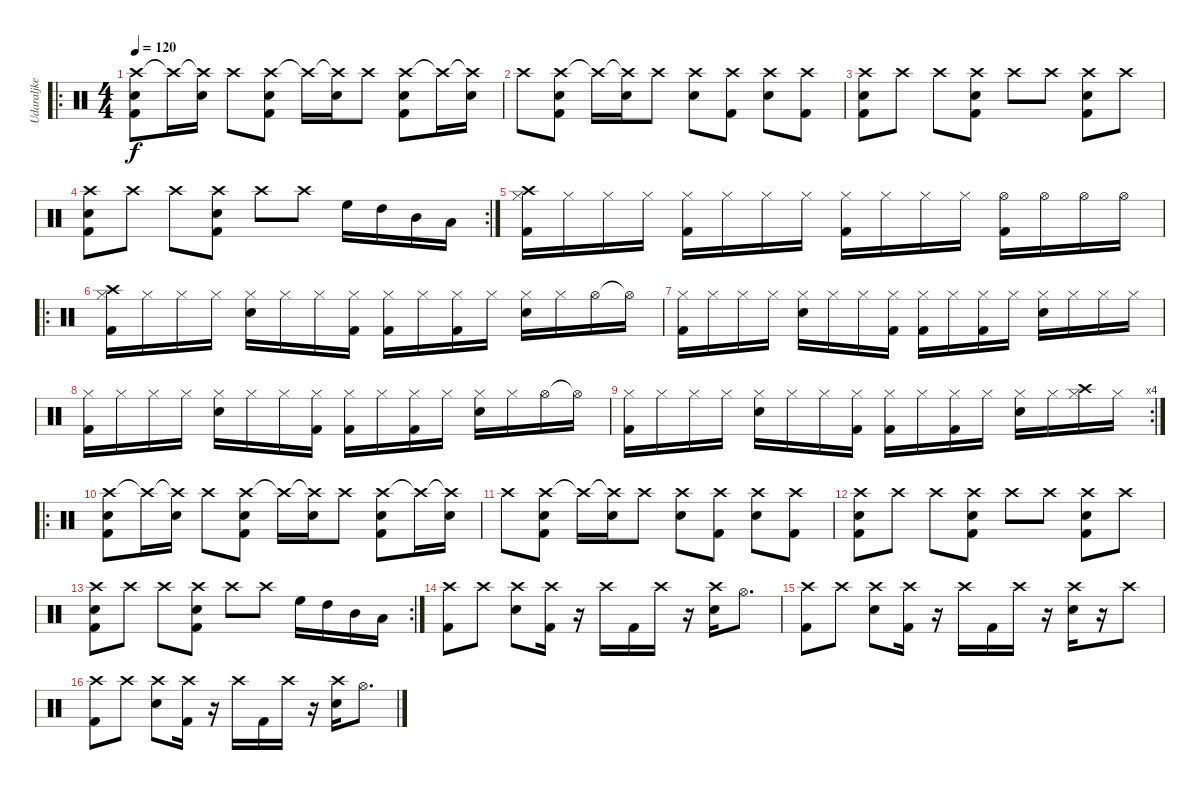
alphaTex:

\track ("Udaraljke" "Udaraljke") {instrument percussion}
\staff {score}
\articulation defaults
\ro
\ts (4 4)
\tempo 120
\clef neutral
\ks c
("Crash high (hit)" "Snare (hit) 2" "Kick (hit) 2").8{dy f} "Crash high (hit)"{t}.16 ("Crash high (hit)"{t} "Snare (hit) 2").16 "Crash high (hit)".8 ("Crash high (hit)" "Snare (hit) 2" "Kick (hit) 2").8 "Crash high (hit)"{t}.16 ("Crash high (hit)"{t} "Snare (hit) 2").16 "Crash high (hit)".8 ("Crash high (hit)" "Snare (hit) 2" "Kick (hit) 2").8 "Crash high (hit)"{t}.16 ("Crash high (hit)"{t} "Snare (hit) 2").16 |
"Crash high (hit)".8 ("Crash high (hit)" "Snare (hit) 2" "Kick (hit) 2").8 "Crash high (hit)"{t}.16 ("Crash high (hit)"{t} "Snare (hit) 2").16 "Crash high (hit)".8 ("Crash high (hit)" "Snare (hit) 2").8 ("Crash high (hit)" "Kick (hit) 2").8 ("Crash high (hit)" "Snare (hit) 2").8 ("Crash high (hit)" "Kick (hit) 2").8 |
("Crash high (hit)" "Snare (hit) 2" "Kick (hit) 2").8 "Crash high (hit)".8 "Crash high (hit)".8 ("Crash high (hit)" "Snare (hit) 2" "Kick (hit) 2").8 "Crash high (hit)".8 "Crash high (hit)".8 ("Crash high (hit)" "Snare (hit) 2" "Kick (hit) 2").8 "Crash high (hit)".8 |
\rc 2
("Crash high (hit)" "Snare (hit) 2" "Kick (hit) 2").8 "Crash high (hit)".8 "Crash high (hit)".8 ("Crash high (hit)" "Snare (hit) 2" "Kick (hit) 2").8 "Crash high (hit)".8 "Crash high (hit)".8 "High Floor Tom (hit)".16 "High Tom (hit)".16 "Mid Tom (hit)".16 "Low Tom (hit)".16 |
("Crash high (hit)" "Hi-Hat (closed)" "Kick (hit) 2").16 "Hi-Hat (closed)".16 "Hi-Hat (closed)".16 "Hi-Hat (closed)".16 ("Hi-Hat (closed)" "Kick (hit) 2").16 "Hi-Hat (closed)".16 "Hi-Hat (closed)".16 "Hi-Hat (closed)".16 ("Hi-Hat (closed)" "Kick (hit) 2").16 "Hi-Hat (closed)".16 "Hi-Hat (closed)".16 "Hi-Hat (closed)".16 ("Hi-Hat (open)" "Kick (hit) 2").16 "Hi-Hat (open)".16 "Hi-Hat (open)".16 "Hi-Hat (open)".16 |
\ro
("Crash high (hit)" "Hi-Hat (closed)" "Kick (hit) 2").16 "Hi-Hat (closed)".16 "Hi-Hat (closed)".16 "Hi-Hat (closed)".16 ("Hi-Hat (closed)" "Snare (hit) 2").16 "Hi-Hat (closed)".16 "Hi-Hat (closed)".16 ("Hi-Hat (closed)" "Kick (hit) 2").16 ("Hi-Hat (closed)" "Kick (hit) 2").16 "Hi-Hat (closed)".16 ("Hi-Hat (closed)" "Kick (hit) 2").16 "Hi-Hat (closed)".16 ("Hi-Hat (closed)" "Snare (hit) 2").16 "Hi-Hat (closed)".16 "Hi-Hat (open)".16 "Hi-Hat (open)"{t}.16 |
("Hi-Hat (closed)" "Kick (hit) 2").16 "Hi-Hat (closed)".16 "Hi-Hat (closed)".16 "Hi-Hat (closed)".16 ("Hi-Hat (closed)" "Snare (hit) 2").16 "Hi-Hat (closed)".16 "Hi-Hat (closed)".16 ("Hi-Hat (closed)" "Kick (hit) 2").16 ("Hi-Hat (closed)" "Kick (hit) 2").16 "Hi-Hat (closed)".16 ("Hi-Hat (closed)" "Kick (hit) 2").16 "Hi-Hat (closed)".16 ("Hi-Hat (closed)" "Snare (hit) 2").16 "Hi-Hat (closed)".16 "Hi-Hat (closed)".16 "Hi-Hat (closed)".16 |
("Hi-Hat (closed)" "Kick (hit) 2").16 "Hi-Hat (closed)".16 "Hi-Hat (closed)".16 "Hi-Hat (closed)".16 ("Hi-Hat (closed)" "Snare (hit) 2").16 "Hi-Hat (closed)".16 "Hi-Hat (closed)".16 ("Hi-Hat (closed)" "Kick (hit) 2").16 ("Hi-Hat (closed)" "Kick (hit) 2").16 "Hi-Hat (closed)".16 ("Hi-Hat (closed)" "Kick (hit) 2").16 "Hi-Hat (closed)".16 ("Hi-Hat (closed)" "Snare (hit) 2").16 "Hi-Hat (closed)".16 "Hi-Hat (open)".16 "Hi-Hat (open)"{t}.16 |
\rc 4
("Hi-Hat (closed)" "Kick (hit) 2").16 "Hi-Hat (closed)".16 "Hi-Hat (closed)".16 "Hi-Hat (closed)".16 ("Hi-Hat (closed)" "Snare (hit) 2").16 "Hi-Hat (closed)".16 "Hi-Hat (closed)".16 ("Hi-Hat (closed)" "Kick (hit) 2").16 ("Hi-Hat (closed)" "Kick (hit) 2").16 "Hi-Hat (closed)".16 ("Hi-Hat (closed)" "Kick (hit) 2").16 "Hi-Hat (closed)".16 ("Hi-Hat (closed)" "Snare (hit) 2").16 "Hi-Hat (closed)".16 ("Crash high (hit)" "Hi-Hat (closed)").16 "Hi-Hat (closed)".16 |
\ro
("Crash high (hit)" "Snare (hit) 2" "Kick (hit) 2").8 "Crash high (hit)"{t}.16 ("Crash high (hit)"{t} "Snare (hit) 2").16 "Crash high (hit)".8 ("Crash high (hit)" "Snare (hit) 2" "Kick (hit) 2").8 "Crash high (hit)"{t}.16 ("Crash high (hit)"{t} "Snare (hit) 2").16 "Crash high (hit)".8 ("Crash high (hit)" "Snare (hit) 2" "Kick (hit) 2").8 "Crash high (hit)"{t}.16 ("Crash high (hit)"{t} "Snare (hit) 2").16 |
"Crash high (hit)".8 ("Crash high (hit)" "Snare (hit) 2" "Kick (hit) 2").8 "Crash high (hit)"{t}.16 ("Crash high (hit)"{t} "Snare (hit) 2").16 "Crash high (hit)".8 ("Crash high (hit)" "Snare (hit) 2").8 ("Crash high (hit)" "Kick (hit) 2").8 ("Crash high (hit)" "Snare (hit) 2").8 ("Crash high (hit)" "Kick (hit) 2").8 |
("Crash high (hit)" "Snare (hit) 2" "Kick (hit) 2").8 "Crash high (hit)".8 "Crash high (hit)".8 ("Crash high (hit)" "Snare (hit) 2" "Kick (hit) 2").8 "Crash high (hit)".8 "Crash high (hit)".8 ("Crash high (hit)" "Snare (hit) 2" "Kick (hit) 2").8 "Crash high (hit)".8 |
\rc 2
("Crash high (hit)" "Snare (hit) 2" "Kick (hit) 2").8 "Crash high (hit)".8 "Crash high (hit)".8 ("Crash high (hit)" "Snare (hit) 2" "Kick (hit) 2").8 "Crash high (hit)".8 "Crash high (hit)".8 "High Floor Tom (hit)".16 "High Tom (hit)".16 "Mid Tom (hit)".16 "Low Tom (hit)".16 |
("Crash high (hit)" "Kick (hit) 2").8 "Crash high (hit)".8 ("Crash high (hit)" "Snare (hit) 2").8 ("Crash high (hit)" "Kick (hit) 2").16 r.16 "Crash high (hit)".16 "Kick (hit) 2".16 "Crash high (hit)".16 r.16 ("Crash high (hit)" "Snare (hit) 2").16 "Hi-Hat (open)".8{d} |
("Crash high (hit)" "Kick (hit) 2").8 "Crash high (hit)".8 ("Crash high (hit)" "Snare (hit) 2").8 ("Crash high (hit)" "Kick (hit) 2").16 r.16 "Crash high (hit)".16 "Kick (hit) 2".16 "Crash high (hit)".16 r.16 ("Crash high (hit)" "Snare (hit) 2").16 r.16 "Crash high (hit)".8 |
("Crash high (hit)" "Kick (hit) 2").8 "Crash high (hit)".8 ("Crash high (hit)" "Snare (hit) 2").8 ("Crash high (hit)" "Kick (hit) 2").16 r.16 "Crash high (hit)".16 "Kick (hit) 2".16 "Crash high (hit)".16 r.16 ("Crash high (hit)" "Snare (hit) 2").16 "Hi-Hat (open)".8{d}
